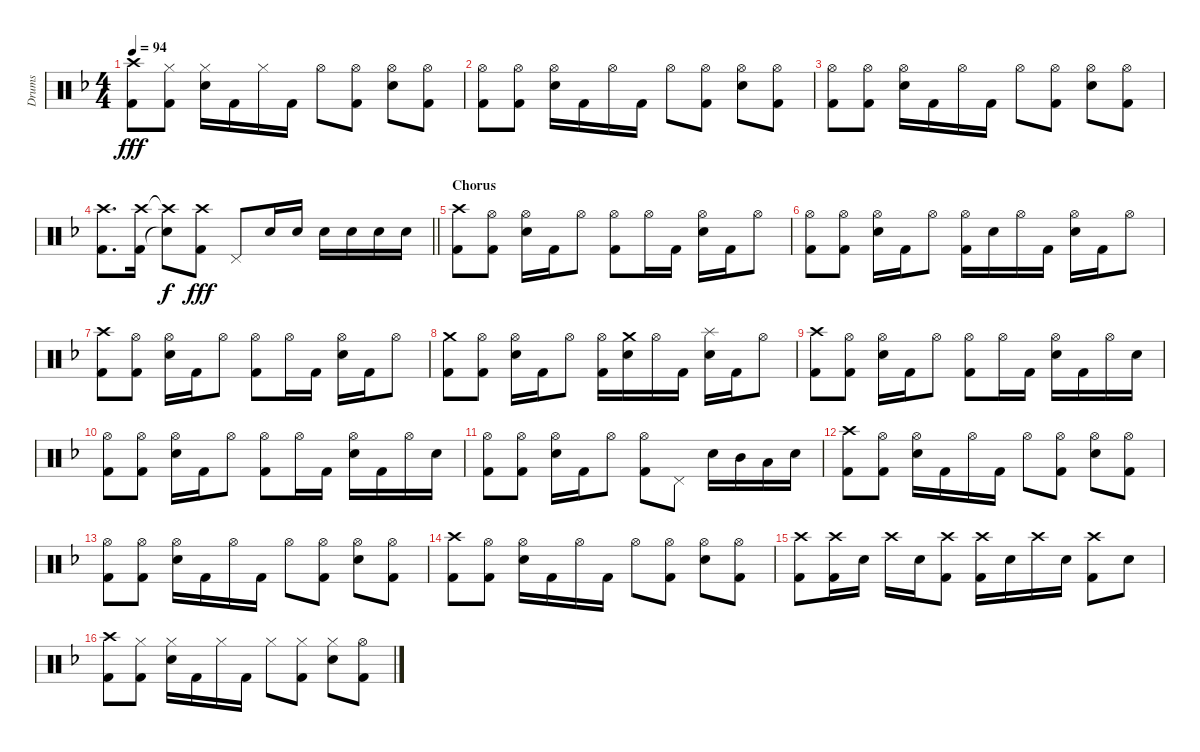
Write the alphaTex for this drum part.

\track ("Drums" "Drums") {instrument percussion}
\staff {score}
\articulation defaults
\ts (4 4)
\tempo 94
\clef neutral
\ks f
("Crash high (hit)" "Kick (hit) 2").8{dy fff} ("Hi-Hat (closed)" "Kick (hit) 2").8 ("Hi-Hat (closed)" "Snare (hit) 2").16 "Kick (hit) 2".16 "Hi-Hat (closed)".16 "Kick (hit) 2".16 "Hi-Hat (open)".8 ("Hi-Hat (open)" "Kick (hit) 2").8 ("Hi-Hat (open)" "Snare (hit) 2").8 ("Hi-Hat (open)" "Kick (hit) 2").8 |
("Hi-Hat (open)" "Kick (hit) 2").8 ("Hi-Hat (open)" "Kick (hit) 2").8 ("Hi-Hat (open)" "Snare (hit) 2").16 "Kick (hit) 2".16 "Hi-Hat (open)".16 "Kick (hit) 2".16 "Hi-Hat (open)".8 ("Hi-Hat (open)" "Kick (hit) 2").8 ("Hi-Hat (open)" "Snare (hit) 2").8 ("Hi-Hat (open)" "Kick (hit) 2").8 |
("Hi-Hat (open)" "Kick (hit) 2").8 ("Hi-Hat (open)" "Kick (hit) 2").8 ("Hi-Hat (open)" "Snare (hit) 2").16 "Kick (hit) 2".16 "Hi-Hat (open)".16 "Kick (hit) 2".16 "Hi-Hat (open)".8 ("Hi-Hat (open)" "Kick (hit) 2").8 ("Hi-Hat (open)" "Snare (hit) 2").8 ("Hi-Hat (open)" "Kick (hit) 2").8 |
\barLineRight lightlight
("Crash high (hit)" "Kick (hit) 2").8{d} ("Crash high (hit)" "Kick (hit) 2").16 ("Crash high (hit)"{t} "Snare (hit)"{t}).8{dy f} ("Crash high (hit)" "Kick (hit) 2").8{dy fff} "Pedal Hi-Hat (hit)".8 "Snare (hit) 2".16 "Snare (hit) 2".16 "Snare (hit) 2".16 "Snare (hit) 2".16 "Snare (hit) 2".16 "Snare (hit) 2".16 |
\section ("" "Chorus")
("Crash high (hit)" "Kick (hit) 2").8 ("Hi-Hat (open)" "Kick (hit) 2").8 ("Hi-Hat (open)" "Snare (hit) 2").16 "Kick (hit) 2".16 "Hi-Hat (open)".8 ("Hi-Hat (open)" "Kick (hit) 2").8 "Hi-Hat (open)".16 "Kick (hit) 2".16 ("Hi-Hat (open)" "Snare (hit) 2").16 "Kick (hit) 2".16 "Hi-Hat (open)".8 |
("Hi-Hat (open)" "Kick (hit) 2").8 ("Hi-Hat (open)" "Kick (hit) 2").8 ("Hi-Hat (open)" "Snare (hit) 2").16 "Kick (hit) 2".16 "Hi-Hat (open)".8 ("Hi-Hat (open)" "Kick (hit) 2").16 "Snare (hit) 2".16 "Hi-Hat (open)".16 "Kick (hit) 2".16 ("Hi-Hat (open)" "Snare (hit) 2").16 "Kick (hit) 2".16 "Hi-Hat (open)".8 |
("Crash high (hit)" "Kick (hit) 2").8 ("Hi-Hat (open)" "Kick (hit) 2").8 ("Hi-Hat (open)" "Snare (hit) 2").16 "Kick (hit) 2".16 "Hi-Hat (open)".8 ("Hi-Hat (open)" "Kick (hit) 2").8 "Hi-Hat (open)".16 "Kick (hit) 2".16 ("Hi-Hat (open)" "Snare (hit) 2").16 "Kick (hit) 2".16 "Hi-Hat (open)".8 |
("Crash medium (hit)" "Kick (hit) 2").8 ("Hi-Hat (open)" "Kick (hit) 2").8 ("Hi-Hat (open)" "Snare (hit) 2").16 "Kick (hit) 2".16 "Hi-Hat (open)".8 ("Hi-Hat (open)" "Kick (hit) 2").16 ("Crash medium (hit)" "Snare (hit) 2").16 "Hi-Hat (open)".16 "Kick (hit) 2".16 ("Splash (hit)" "Snare (hit) 2").16 "Kick (hit) 2".16 "Hi-Hat (open)".8 |
("Crash high (hit)" "Kick (hit) 2").8 ("Hi-Hat (open)" "Kick (hit) 2").8 ("Hi-Hat (open)" "Snare (hit) 2").16 "Kick (hit) 2".16 "Hi-Hat (open)".8 ("Hi-Hat (open)" "Kick (hit) 2").8 "Hi-Hat (open)".16 "Kick (hit) 2".16 ("Hi-Hat (open)" "Snare (hit) 2").16 "Kick (hit) 2".16 "Hi-Hat (open)".16 "Snare (hit) 2".16 |
("Hi-Hat (open)" "Kick (hit) 2").8 ("Hi-Hat (open)" "Kick (hit) 2").8 ("Hi-Hat (open)" "Snare (hit) 2").16 "Kick (hit) 2".16 "Hi-Hat (open)".8 ("Hi-Hat (open)" "Kick (hit) 2").8 "Hi-Hat (open)".16 "Kick (hit) 2".16 ("Hi-Hat (open)" "Snare (hit) 2").16 "Kick (hit) 2".16 "Hi-Hat (open)".16 "Snare (hit) 2".16 |
("Hi-Hat (open)" "Kick (hit) 2").8 ("Hi-Hat (open)" "Kick (hit) 2").8 ("Hi-Hat (open)" "Snare (hit) 2").16 "Kick (hit) 2".16 "Hi-Hat (open)".8 ("Hi-Hat (open)" "Kick (hit) 2").8 "Pedal Hi-Hat (hit)".8 "Snare (hit) 2".16 "Mid Tom (hit)".16 "Low Tom (hit)".16 "Snare (hit) 2".16 |
("Crash high (hit)" "Kick (hit) 2").8 ("Hi-Hat (open)" "Kick (hit) 2").8 ("Hi-Hat (open)" "Snare (hit) 2").16 "Kick (hit) 2".16 "Hi-Hat (open)".16 "Kick (hit) 2".16 "Hi-Hat (open)".8 ("Hi-Hat (open)" "Kick (hit) 2").8 ("Hi-Hat (open)" "Snare (hit) 2").8 ("Hi-Hat (open)" "Kick (hit) 2").8 |
("Hi-Hat (open)" "Kick (hit) 2").8 ("Hi-Hat (open)" "Kick (hit) 2").8 ("Hi-Hat (open)" "Snare (hit) 2").16 "Kick (hit) 2".16 "Hi-Hat (open)".16 "Kick (hit) 2".16 "Hi-Hat (open)".8 ("Hi-Hat (open)" "Kick (hit) 2").8 ("Hi-Hat (open)" "Snare (hit) 2").8 ("Hi-Hat (open)" "Kick (hit) 2").8 |
("Crash high (hit)" "Kick (hit) 2").8 ("Hi-Hat (open)" "Kick (hit) 2").8 ("Hi-Hat (open)" "Snare (hit) 2").16 "Kick (hit) 2".16 "Hi-Hat (open)".16 "Kick (hit) 2".16 "Hi-Hat (open)".8 ("Hi-Hat (open)" "Kick (hit) 2").8 ("Hi-Hat (open)" "Snare (hit) 2").8 ("Hi-Hat (open)" "Kick (hit) 2").8 |
("Crash high (hit)" "Kick (hit) 2").8 ("Crash high (hit)" "Kick (hit) 2").16 "Snare (hit) 2".16 "Crash high (hit)".16 "Snare (hit) 2".16 ("Crash high (hit)" "Kick (hit) 2").8 ("Crash high (hit)" "Kick (hit) 2").16 "Snare (hit) 2".16 "Crash high (hit)".16 "Snare (hit) 2".16 ("Crash high (hit)" "Kick (hit) 2").8 "Snare (hit) 2".8 |
("Crash high (hit)" "Kick (hit) 2").8 ("Hi-Hat (closed)" "Kick (hit) 2").8 ("Hi-Hat (closed)" "Snare (hit) 2").16 "Kick (hit) 2".16 "Hi-Hat (closed)".16 "Kick (hit) 2".16 "Hi-Hat (closed)".8 ("Hi-Hat (closed)" "Kick (hit) 2").8 ("Hi-Hat (closed)" "Snare (hit) 2").8 ("Hi-Hat (open)" "Kick (hit) 2").8
